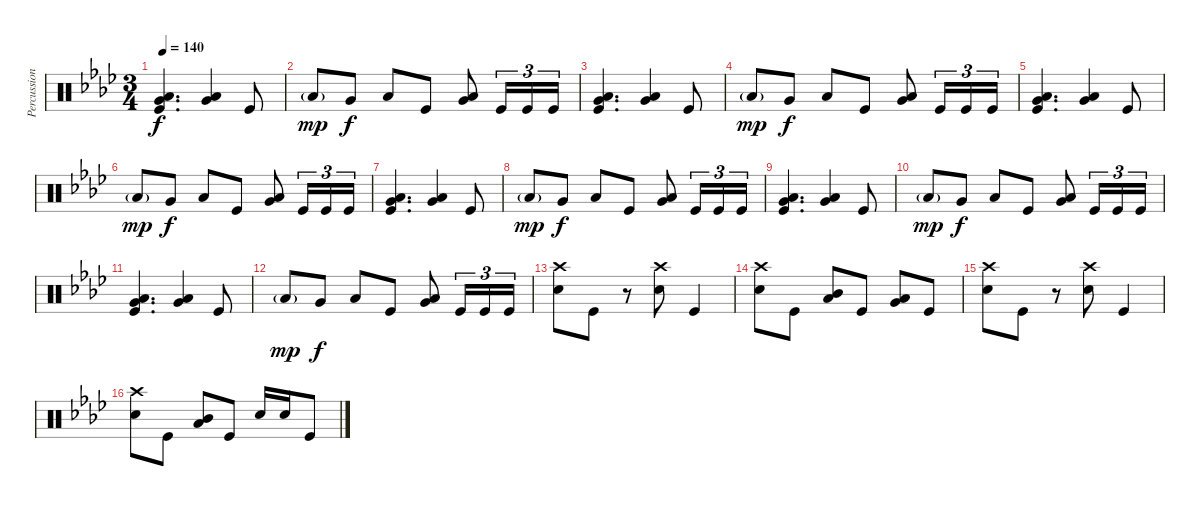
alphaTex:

\track ("Percussion" "Percussion") {instrument percussion}
\staff {score}
\articulation defaults
\ts (3 4)
\tempo 140
\clef neutral
\ks ab
("Low Floor Tom (hit)" "Very Low Tom (hit)" "Kick (hit)").4{d dy f} ("Low Floor Tom (hit)" "Very Low Tom (hit)").4 "Kick (hit)".8 |
"Low Floor Tom (hit)"{g}.8{dy mp} "Very Low Tom (hit)".8{dy f} "Low Floor Tom (hit)".8 "Kick (hit)".8 ("Very Low Tom (hit)" "Low Floor Tom (hit)").8 "Kick (hit)".16{tu (3 2)} "Kick (hit)".16{tu (3 2)} "Kick (hit)".16{tu (3 2)} |
("Low Floor Tom (hit)" "Very Low Tom (hit)" "Kick (hit)").4{d} ("Low Floor Tom (hit)" "Very Low Tom (hit)").4 "Kick (hit)".8 |
"Low Floor Tom (hit)"{g}.8{dy mp} "Very Low Tom (hit)".8{dy f} "Low Floor Tom (hit)".8 "Kick (hit)".8 ("Very Low Tom (hit)" "Low Floor Tom (hit)").8 "Kick (hit)".16{tu (3 2)} "Kick (hit)".16{tu (3 2)} "Kick (hit)".16{tu (3 2)} |
("Low Floor Tom (hit)" "Very Low Tom (hit)" "Kick (hit)").4{d} ("Low Floor Tom (hit)" "Very Low Tom (hit)").4 "Kick (hit)".8 |
"Low Floor Tom (hit)"{g}.8{dy mp} "Very Low Tom (hit)".8{dy f} "Low Floor Tom (hit)".8 "Kick (hit)".8 ("Very Low Tom (hit)" "Low Floor Tom (hit)").8 "Kick (hit)".16{tu (3 2)} "Kick (hit)".16{tu (3 2)} "Kick (hit)".16{tu (3 2)} |
("Low Floor Tom (hit)" "Very Low Tom (hit)" "Kick (hit)").4{d} ("Low Floor Tom (hit)" "Very Low Tom (hit)").4 "Kick (hit)".8 |
"Low Floor Tom (hit)"{g}.8{dy mp} "Very Low Tom (hit)".8{dy f} "Low Floor Tom (hit)".8 "Kick (hit)".8 ("Very Low Tom (hit)" "Low Floor Tom (hit)").8 "Kick (hit)".16{tu (3 2)} "Kick (hit)".16{tu (3 2)} "Kick (hit)".16{tu (3 2)} |
("Low Floor Tom (hit)" "Very Low Tom (hit)" "Kick (hit)").4{d} ("Low Floor Tom (hit)" "Very Low Tom (hit)").4 "Kick (hit)".8 |
"Low Floor Tom (hit)"{g}.8{dy mp} "Very Low Tom (hit)".8{dy f} "Low Floor Tom (hit)".8 "Kick (hit)".8 ("Very Low Tom (hit)" "Low Floor Tom (hit)").8 "Kick (hit)".16{tu (3 2)} "Kick (hit)".16{tu (3 2)} "Kick (hit)".16{tu (3 2)} |
("Low Floor Tom (hit)" "Very Low Tom (hit)" "Kick (hit)").4{d} ("Low Floor Tom (hit)" "Very Low Tom (hit)").4 "Kick (hit)".8 |
"Low Floor Tom (hit)"{g}.8{dy mp} "Very Low Tom (hit)".8{dy f} "Low Floor Tom (hit)".8 "Kick (hit)".8 ("Very Low Tom (hit)" "Low Floor Tom (hit)").8 "Kick (hit)".16{tu (3 2)} "Kick (hit)".16{tu (3 2)} "Kick (hit)".16{tu (3 2)} |
("Crash high (hit)" "Snare (hit) 2").8 "Kick (hit)".8 r.8 ("Snare (hit) 2" "Crash high (hit)").8 "Kick (hit)".4 |
("Snare (hit) 2" "Crash high (hit)").8 "Kick (hit)".8 ("Low Tom (hit)" "Mid Tom (hit)").8 "Kick (hit)".8 ("Very Low Tom (hit)" "Low Floor Tom (hit)").8 "Kick (hit)".8 |
("Crash high (hit)" "Snare (hit) 2").8 "Kick (hit)".8 r.8 ("Snare (hit) 2" "Crash high (hit)").8 "Kick (hit)".4 |
("Crash high (hit)" "Snare (hit) 2").8 "Kick (hit)".8 ("Low Tom (hit)" "Mid Tom (hit)").8 "Kick (hit)".8 "Snare (hit) 2".16 "Snare (hit) 2".16 "Kick (hit)".8
